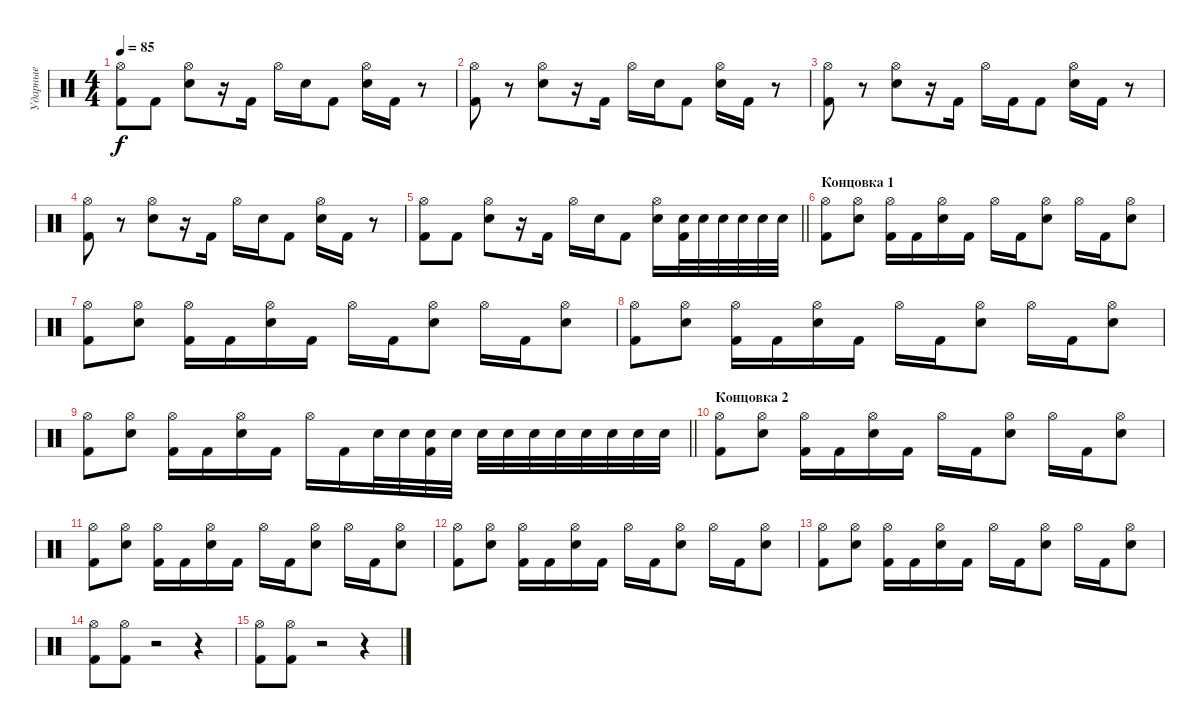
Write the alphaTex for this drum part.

\track ("Ударные" "Ударные") {instrument percussion}
\staff {score}
\articulation defaults
\ts (4 4)
\tempo 85
\clef neutral
\ks c
("Hi-Hat (open)" "Kick (hit) 2").8{dy f} "Kick (hit) 2".8 ("Hi-Hat (open)" "Electric Snare (hit)").8 r.16 "Kick (hit) 2".16 "Hi-Hat (open)".16 "Electric Snare (hit)".16 "Kick (hit) 2".8 ("Hi-Hat (open)" "Electric Snare (hit)").16 "Kick (hit) 2".16 r.8 |
("Hi-Hat (open)" "Kick (hit) 2").8 r.8 ("Hi-Hat (open)" "Electric Snare (hit)").8 r.16 "Kick (hit) 2".16 "Hi-Hat (open)".16 "Electric Snare (hit)".16 "Kick (hit) 2".8 ("Hi-Hat (open)" "Electric Snare (hit)").16 "Kick (hit) 2".16 r.8 |
("Hi-Hat (open)" "Kick (hit) 2").8 r.8 ("Hi-Hat (open)" "Electric Snare (hit)").8 r.16 "Kick (hit) 2".16 "Hi-Hat (open)".16 "Kick (hit) 2".16 "Kick (hit) 2".8 ("Hi-Hat (open)" "Electric Snare (hit)").16 "Kick (hit) 2".16 r.8 |
("Hi-Hat (open)" "Kick (hit) 2").8 r.8 ("Hi-Hat (open)" "Electric Snare (hit)").8 r.16 "Kick (hit) 2".16 "Hi-Hat (open)".16 "Electric Snare (hit)".16 "Kick (hit) 2".8 ("Hi-Hat (open)" "Electric Snare (hit)").16 "Kick (hit) 2".16 r.8 |
\barLineRight lightlight
("Hi-Hat (open)" "Kick (hit) 2").8 "Kick (hit) 2".8 ("Hi-Hat (open)" "Electric Snare (hit)").8 r.16 "Kick (hit) 2".16 "Hi-Hat (open)".16 "Electric Snare (hit)".16 "Kick (hit) 2".8 ("Hi-Hat (open)" "Electric Snare (hit)").16 ("Kick (hit) 2" "Electric Snare (hit)").32 "Electric Snare (hit)".32 "Electric Snare (hit)".32 "Electric Snare (hit)".32 "Electric Snare (hit)".32 "Electric Snare (hit)".32 |
\section ("" "Концовка 1")
("Hi-Hat (open)" "Kick (hit) 2").8 ("Hi-Hat (open)" "Electric Snare (hit)").8 ("Hi-Hat (open)" "Kick (hit) 2").16 "Kick (hit) 2".16 ("Hi-Hat (open)" "Electric Snare (hit)").16 "Kick (hit) 2".16 "Hi-Hat (open)".16 "Kick (hit) 2".16 ("Hi-Hat (open)" "Electric Snare (hit)").8 "Hi-Hat (open)".16 "Kick (hit) 2".16 ("Hi-Hat (open)" "Electric Snare (hit)").8 |
("Hi-Hat (open)" "Kick (hit) 2").8 ("Hi-Hat (open)" "Electric Snare (hit)").8 ("Hi-Hat (open)" "Kick (hit) 2").16 "Kick (hit) 2".16 ("Hi-Hat (open)" "Electric Snare (hit)").16 "Kick (hit) 2".16 "Hi-Hat (open)".16 "Kick (hit) 2".16 ("Hi-Hat (open)" "Electric Snare (hit)").8 "Hi-Hat (open)".16 "Kick (hit) 2".16 ("Hi-Hat (open)" "Electric Snare (hit)").8 |
("Hi-Hat (open)" "Kick (hit) 2").8 ("Hi-Hat (open)" "Electric Snare (hit)").8 ("Hi-Hat (open)" "Kick (hit) 2").16 "Kick (hit) 2".16 ("Hi-Hat (open)" "Electric Snare (hit)").16 "Kick (hit) 2".16 "Hi-Hat (open)".16 "Kick (hit) 2".16 ("Hi-Hat (open)" "Electric Snare (hit)").8 "Hi-Hat (open)".16 "Kick (hit) 2".16 ("Hi-Hat (open)" "Electric Snare (hit)").8 |
\barLineRight lightlight
("Hi-Hat (open)" "Kick (hit) 2").8 ("Hi-Hat (open)" "Electric Snare (hit)").8 ("Hi-Hat (open)" "Kick (hit) 2").16 "Kick (hit) 2".16 ("Hi-Hat (open)" "Electric Snare (hit)").16 "Kick (hit) 2".16 "Hi-Hat (open)".16 "Kick (hit) 2".16 "Snare (hit) 2".32 "Snare (hit) 2".32 ("Kick (hit) 2" "Snare (hit) 2").32 "Snare (hit) 2".32 "Electric Snare (hit)".32 "Electric Snare (hit)".32 "Electric Snare (hit)".32 "Electric Snare (hit)".32 "Electric Snare (hit)".32 "Electric Snare (hit)".32 "Electric Snare (hit)".32 "Electric Snare (hit)".32 |
\section ("" "Концовка 2")
("Hi-Hat (open)" "Kick (hit) 2").8 ("Hi-Hat (open)" "Electric Snare (hit)").8 ("Hi-Hat (open)" "Kick (hit) 2").16 "Kick (hit) 2".16 ("Hi-Hat (open)" "Electric Snare (hit)").16 "Kick (hit) 2".16 "Hi-Hat (open)".16 "Kick (hit) 2".16 ("Hi-Hat (open)" "Electric Snare (hit)").8 "Hi-Hat (open)".16 "Kick (hit) 2".16 ("Hi-Hat (open)" "Electric Snare (hit)").8 |
("Hi-Hat (open)" "Kick (hit) 2").8 ("Hi-Hat (open)" "Electric Snare (hit)").8 ("Hi-Hat (open)" "Kick (hit) 2").16 "Kick (hit) 2".16 ("Hi-Hat (open)" "Electric Snare (hit)").16 "Kick (hit) 2".16 "Hi-Hat (open)".16 "Kick (hit) 2".16 ("Hi-Hat (open)" "Electric Snare (hit)").8 "Hi-Hat (open)".16 "Kick (hit) 2".16 ("Hi-Hat (open)" "Electric Snare (hit)").8 |
("Hi-Hat (open)" "Kick (hit) 2").8 ("Hi-Hat (open)" "Electric Snare (hit)").8 ("Hi-Hat (open)" "Kick (hit) 2").16 "Kick (hit) 2".16 ("Hi-Hat (open)" "Electric Snare (hit)").16 "Kick (hit) 2".16 "Hi-Hat (open)".16 "Kick (hit) 2".16 ("Hi-Hat (open)" "Electric Snare (hit)").8 "Hi-Hat (open)".16 "Kick (hit) 2".16 ("Hi-Hat (open)" "Electric Snare (hit)").8 |
("Hi-Hat (open)" "Kick (hit) 2").8 ("Hi-Hat (open)" "Electric Snare (hit)").8 ("Hi-Hat (open)" "Kick (hit) 2").16 "Kick (hit) 2".16 ("Hi-Hat (open)" "Electric Snare (hit)").16 "Kick (hit) 2".16 "Hi-Hat (open)".16 "Kick (hit) 2".16 ("Hi-Hat (open)" "Electric Snare (hit)").8 "Hi-Hat (open)".16 "Kick (hit) 2".16 ("Hi-Hat (open)" "Electric Snare (hit)").8 |
("Hi-Hat (open)" "Kick (hit) 2").8 ("Hi-Hat (open)" "Kick (hit) 2").8 r.2 r.4 |
("Hi-Hat (open)" "Kick (hit) 2").8 ("Hi-Hat (open)" "Kick (hit) 2").8 r.2 r.4
